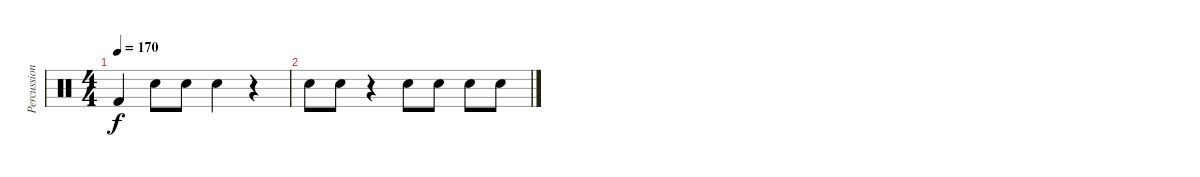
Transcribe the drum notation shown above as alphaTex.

\track ("Percussion" "Percussion") {instrument percussion}
\staff {score}
\articulation defaults
\ts (4 4)
\tempo 170
\clef neutral
\ks c "Kick (hit) 2".4{dy f} "Snare (hit) 2".8 "Snare (hit) 2".8 "Snare (hit) 2".4
r.4 |
"Snare (hit) 2".8 "Snare (hit) 2".8 r.4 "Snare (hit) 2".8 "Snare (hit) 2".8 "Snare (hit) 2".8 "Snare (hit) 2".8
